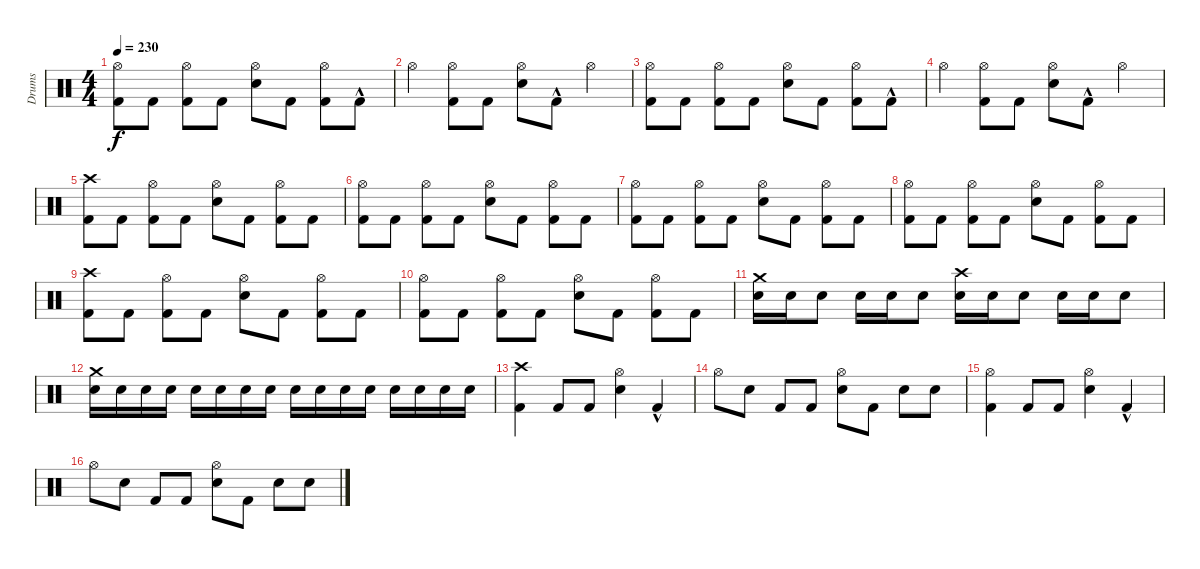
\track ("Drums" "Drums") {instrument percussion}
\staff {score}
\articulation defaults
\ts (4 4)
\tempo 230
\clef neutral
\ks c
("Kick (hit) 2" "Hi-Hat (open)").8{dy f} "Kick (hit) 2".8 ("Hi-Hat (open)" "Kick (hit) 2").8 "Kick (hit) 2".8 ("Hi-Hat (open)" "Electric Snare (hit)").8 "Kick (hit) 2".8 ("Hi-Hat (open)" "Kick (hit) 2").8 "Kick (hit) 2"{hac}.8 |
"Hi-Hat (open)".4 ("Hi-Hat (open)" "Kick (hit) 2").8 "Kick (hit) 2".8 ("Hi-Hat (open)" "Electric Snare (hit)").8 "Kick (hit) 2"{hac}.8 "Hi-Hat (open)".4 |
("Hi-Hat (open)" "Kick (hit) 2").8 "Kick (hit) 2".8 ("Hi-Hat (open)" "Kick (hit) 2").8 "Kick (hit) 2".8 ("Hi-Hat (open)" "Electric Snare (hit)").8 "Kick (hit) 2".8 ("Hi-Hat (open)" "Kick (hit) 2").8 "Kick (hit) 2"{hac}.8 |
"Hi-Hat (open)".4 ("Hi-Hat (open)" "Kick (hit) 2").8 "Kick (hit) 2".8 ("Hi-Hat (open)" "Electric Snare (hit)").8 "Kick (hit) 2"{hac}.8 "Hi-Hat (open)".4 |
("Crash high (hit)" "Kick (hit) 2").8 "Kick (hit) 2".8 ("Hi-Hat (open)" "Kick (hit) 2").8 "Kick (hit) 2".8 ("Hi-Hat (open)" "Electric Snare (hit)").8 "Kick (hit) 2".8 ("Hi-Hat (open)" "Kick (hit) 2").8 "Kick (hit) 2".8 |
("Hi-Hat (open)" "Kick (hit) 2").8 "Kick (hit) 2".8 ("Hi-Hat (open)" "Kick (hit) 2").8 "Kick (hit) 2".8 ("Hi-Hat (open)" "Electric Snare (hit)").8 "Kick (hit) 2".8 ("Hi-Hat (open)" "Kick (hit) 2").8 "Kick (hit) 2".8 |
("Hi-Hat (open)" "Kick (hit) 2").8 "Kick (hit) 2".8 ("Hi-Hat (open)" "Kick (hit) 2").8 "Kick (hit) 2".8 ("Hi-Hat (open)" "Electric Snare (hit)").8 "Kick (hit) 2".8 ("Hi-Hat (open)" "Kick (hit) 2").8 "Kick (hit) 2".8 |
("Hi-Hat (open)" "Kick (hit) 2").8 "Kick (hit) 2".8 ("Hi-Hat (open)" "Kick (hit) 2").8 "Kick (hit) 2".8 ("Hi-Hat (open)" "Electric Snare (hit)").8 "Kick (hit) 2".8 ("Hi-Hat (open)" "Kick (hit) 2").8 "Kick (hit) 2".8 |
("Crash high (hit)" "Kick (hit) 2").8 "Kick (hit) 2".8 ("Hi-Hat (open)" "Kick (hit) 2").8 "Kick (hit) 2".8 ("Hi-Hat (open)" "Electric Snare (hit)").8 "Kick (hit) 2".8 ("Hi-Hat (open)" "Kick (hit) 2").8 "Kick (hit) 2".8 |
("Hi-Hat (open)" "Kick (hit) 2").8 "Kick (hit) 2".8 ("Hi-Hat (open)" "Kick (hit) 2").8 "Kick (hit) 2".8 ("Hi-Hat (open)" "Electric Snare (hit)").8 "Kick (hit) 2".8 ("Hi-Hat (open)" "Kick (hit) 2").8 "Kick (hit) 2".8 |
("Electric Snare (hit)" "Crash medium (hit)").16 "Electric Snare (hit)".16 "Electric Snare (hit)".8 "Electric Snare (hit)".16 "Electric Snare (hit)".16 "Electric Snare (hit)".8 ("Electric Snare (hit)" "Crash high (hit)").16 "Electric Snare (hit)".16 "Electric Snare (hit)".8 "Electric Snare (hit)".16 "Electric Snare (hit)".16 "Electric Snare (hit)".8 |
("Electric Snare (hit)" "Crash medium (hit)").16 "Electric Snare (hit)".16 "Electric Snare (hit)".16 "Electric Snare (hit)".16 "Electric Snare (hit)".16 "Electric Snare (hit)".16 "Electric Snare (hit)".16 "Electric Snare (hit)".16 "Electric Snare (hit)".16 "Electric Snare (hit)".16 "Electric Snare (hit)".16 "Electric Snare (hit)".16 "Electric Snare (hit)".16 "Electric Snare (hit)".16 "Electric Snare (hit)".16 "Electric Snare (hit)".16 |
("Crash high (hit)" "Kick (hit) 2").4 "Kick (hit) 2".8 "Kick (hit) 2".8 ("Hi-Hat (open)" "Electric Snare (hit)").4 "Kick (hit) 2"{hac}.4 |
"Hi-Hat (open)".8 "Electric Snare (hit)".8 "Kick (hit) 2".8 "Kick (hit) 2".8 ("Hi-Hat (open)" "Electric Snare (hit)").8 "Kick (hit) 2".8 "Electric Snare (hit)".8 "Electric Snare (hit)".8 |
("Hi-Hat (open)" "Kick (hit) 2").4 "Kick (hit) 2".8 "Kick (hit) 2".8 ("Hi-Hat (open)" "Electric Snare (hit)").4 "Kick (hit) 2"{hac}.4 |
"Hi-Hat (open)".8 "Electric Snare (hit)".8 "Kick (hit) 2".8 "Kick (hit) 2".8 ("Hi-Hat (open)" "Electric Snare (hit)").8 "Kick (hit) 2".8 "Electric Snare (hit)".8 "Electric Snare (hit)".8
